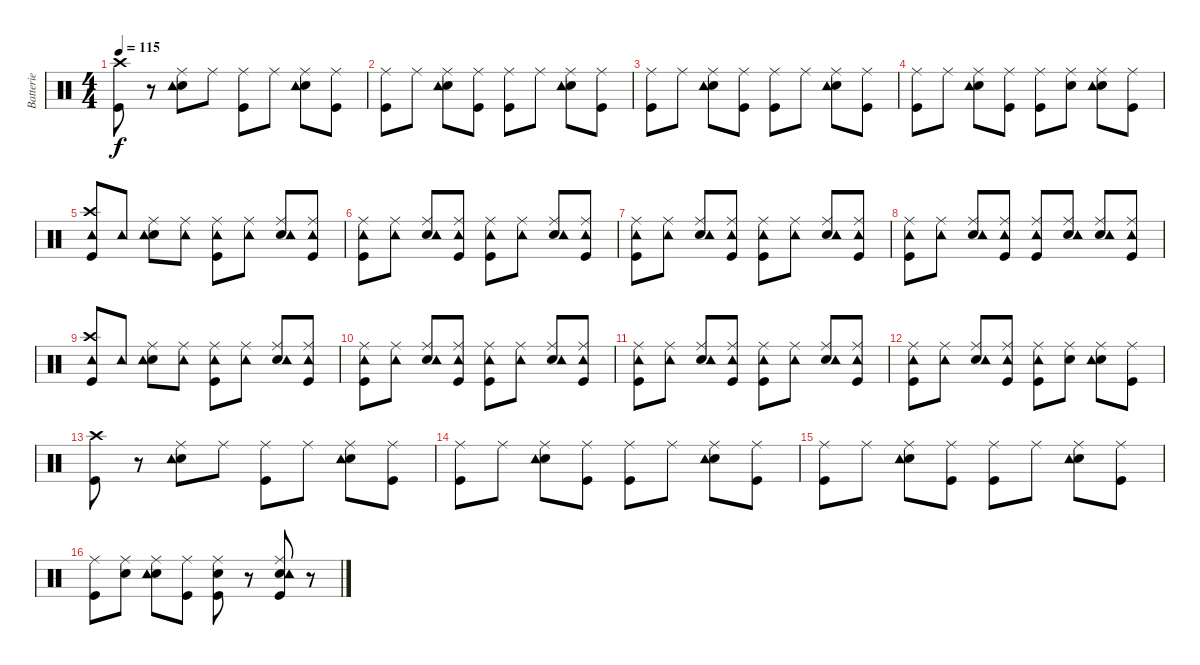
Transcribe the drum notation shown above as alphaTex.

\track ("Batterie" "Batterie") {instrument percussion}
\staff {score}
\articulation defaults
\ts (4 4)
\tempo 115
\clef neutral
\ks c
("Kick (hit)" "Crash high (hit)").8{dy f} r.8 ("Electric Snare (hit)" "Ride (middle)" "Tambourine (hit)").8 "Ride (middle)".8 ("Ride (middle)" "Kick (hit)").8 "Ride (middle)".8 ("Ride (middle)" "Electric Snare (hit)" "Tambourine (hit)").8 ("Ride (middle)" "Kick (hit)").8 |
("Kick (hit)" "Ride (middle)").8 "Ride (middle)".8 ("Electric Snare (hit)" "Ride (middle)" "Tambourine (hit)").8 ("Ride (middle)" "Kick (hit)").8 ("Ride (middle)" "Kick (hit)").8 "Ride (middle)".8 ("Electric Snare (hit)" "Ride (middle)" "Tambourine (hit)").8 ("Kick (hit)" "Ride (middle)").8 |
("Kick (hit)" "Ride (middle)").8 "Ride (middle)".8 ("Ride (middle)" "Electric Snare (hit)" "Tambourine (hit)").8 ("Kick (hit)" "Ride (middle)").8 ("Ride (middle)" "Kick (hit)").8 "Ride (middle)".8 ("Ride (middle)" "Electric Snare (hit)" "Tambourine (hit)").8 ("Ride (middle)" "Kick (hit)").8 |
("Kick (hit)" "Ride (middle)").8 "Ride (middle)".8 ("Electric Snare (hit)" "Ride (middle)" "Tambourine (hit)").8 ("Ride (middle)" "Kick (hit)").8 ("Ride (middle)" "Kick (hit)").8 ("Electric Snare (hit)" "Ride (middle)").8 ("Electric Snare (hit)" "Ride (middle)" "Tambourine (hit)").8 ("Ride (middle)" "Kick (hit)").8 |
("Crash high (hit)" "Kick (hit)" "Tambourine (hit)").8 "Tambourine (hit)".8 ("Electric Snare (hit)" "Ride (middle)" "Tambourine (hit)").8 ("Ride (middle)" "Tambourine (hit)").8 ("Ride (middle)" "Kick (hit)" "Tambourine (hit)").8 ("Ride (middle)" "Tambourine (hit)").8 ("Electric Snare (hit)" "Ride (middle)" "Tambourine (hit)").8 ("Kick (hit)" "Ride (middle)" "Tambourine (hit)").8 |
("Kick (hit)" "Ride (middle)" "Tambourine (hit)").8 ("Ride (middle)" "Tambourine (hit)").8 ("Ride (middle)" "Electric Snare (hit)" "Tambourine (hit)").8 ("Kick (hit)" "Ride (middle)" "Tambourine (hit)").8 ("Kick (hit)" "Ride (middle)" "Tambourine (hit)").8 ("Ride (middle)" "Tambourine (hit)").8 ("Electric Snare (hit)" "Ride (middle)" "Tambourine (hit)").8 ("Kick (hit)" "Ride (middle)" "Tambourine (hit)").8 |
("Kick (hit)" "Ride (middle)" "Tambourine (hit)").8 ("Ride (middle)" "Tambourine (hit)").8 ("Electric Snare (hit)" "Ride (middle)" "Tambourine (hit)").8 ("Kick (hit)" "Ride (middle)" "Tambourine (hit)").8 ("Ride (middle)" "Kick (hit)" "Tambourine (hit)").8 ("Ride (middle)" "Tambourine (hit)").8 ("Electric Snare (hit)" "Ride (middle)" "Tambourine (hit)").8 ("Ride (middle)" "Kick (hit)" "Tambourine (hit)").8 |
("Ride (middle)" "Kick (hit)" "Tambourine (hit)").8 ("Ride (middle)" "Tambourine (hit)").8 ("Ride (middle)" "Electric Snare (hit)" "Tambourine (hit)").8 ("Kick (hit)" "Ride (middle)" "Tambourine (hit)").8 ("Kick (hit)" "Ride (middle)" "Tambourine (hit)").8 ("Ride (middle)" "Electric Snare (hit)" "Tambourine (hit)").8 ("Ride (middle)" "Electric Snare (hit)" "Tambourine (hit)").8 ("Kick (hit)" "Ride (middle)" "Tambourine (hit)").8 |
("Crash high (hit)" "Kick (hit)" "Tambourine (hit)").8 "Tambourine (hit)".8 ("Electric Snare (hit)" "Ride (middle)" "Tambourine (hit)").8 ("Ride (middle)" "Tambourine (hit)").8 ("Ride (middle)" "Kick (hit)" "Tambourine (hit)").8 ("Ride (middle)" "Tambourine (hit)").8 ("Ride (middle)" "Electric Snare (hit)" "Tambourine (hit)").8 ("Kick (hit)" "Ride (middle)" "Tambourine (hit)").8 |
("Kick (hit)" "Ride (middle)" "Tambourine (hit)").8 ("Ride (middle)" "Tambourine (hit)").8 ("Electric Snare (hit)" "Ride (middle)" "Tambourine (hit)").8 ("Kick (hit)" "Ride (middle)" "Tambourine (hit)").8 ("Kick (hit)" "Ride (middle)" "Tambourine (hit)").8 ("Ride (middle)" "Tambourine (hit)").8 ("Electric Snare (hit)" "Ride (middle)" "Tambourine (hit)").8 ("Kick (hit)" "Ride (middle)" "Tambourine (hit)").8 |
("Kick (hit)" "Ride (middle)" "Tambourine (hit)").8 ("Ride (middle)" "Tambourine (hit)").8 ("Ride (middle)" "Electric Snare (hit)" "Tambourine (hit)").8 ("Kick (hit)" "Ride (middle)" "Tambourine (hit)").8 ("Kick (hit)" "Ride (middle)" "Tambourine (hit)").8 ("Ride (middle)" "Tambourine (hit)").8 ("Electric Snare (hit)" "Ride (middle)" "Tambourine (hit)").8 ("Kick (hit)" "Ride (middle)" "Tambourine (hit)").8 |
("Kick (hit)" "Ride (middle)" "Tambourine (hit)").8 ("Ride (middle)" "Tambourine (hit)").8 ("Ride (middle)" "Electric Snare (hit)" "Tambourine (hit)").8 ("Ride (middle)" "Kick (hit)" "Tambourine (hit)").8 ("Kick (hit)" "Ride (middle)" "Tambourine (hit)").8 ("Electric Snare (hit)" "Ride (middle)").8 ("Ride (middle)" "Electric Snare (hit)" "Tambourine (hit)").8 ("Ride (middle)" "Kick (hit)").8 |
("Kick (hit)" "Crash high (hit)").8 r.8 ("Electric Snare (hit)" "Ride (middle)" "Tambourine (hit)").8 "Ride (middle)".8 ("Kick (hit)" "Ride (middle)").8 "Ride (middle)".8 ("Electric Snare (hit)" "Ride (middle)" "Tambourine (hit)").8 ("Kick (hit)" "Ride (middle)").8 |
("Kick (hit)" "Ride (middle)").8 "Ride (middle)".8 ("Ride (middle)" "Electric Snare (hit)" "Tambourine (hit)").8 ("Ride (middle)" "Kick (hit)").8 ("Kick (hit)" "Ride (middle)").8 "Ride (middle)".8 ("Ride (middle)" "Electric Snare (hit)" "Tambourine (hit)").8 ("Ride (middle)" "Kick (hit)").8 |
("Kick (hit)" "Ride (middle)").8 "Ride (middle)".8 ("Electric Snare (hit)" "Ride (middle)" "Tambourine (hit)").8 ("Ride (middle)" "Kick (hit)").8 ("Ride (middle)" "Kick (hit)").8 "Ride (middle)".8 ("Electric Snare (hit)" "Ride (middle)" "Tambourine (hit)").8 ("Kick (hit)" "Ride (middle)").8 |
("Kick (hit)" "Ride (middle)").8 ("Ride (middle)" "Electric Snare (hit)").8 ("Ride (middle)" "Electric Snare (hit)" "Tambourine (hit)").8 ("Ride (middle)" "Kick (hit)").8 ("Kick (hit)" "Electric Snare (hit)" "Ride (middle)").8 r.8 ("Kick (hit)" "Electric Snare (hit)" "Ride (middle)" "Tambourine (hit)").8 r.8
